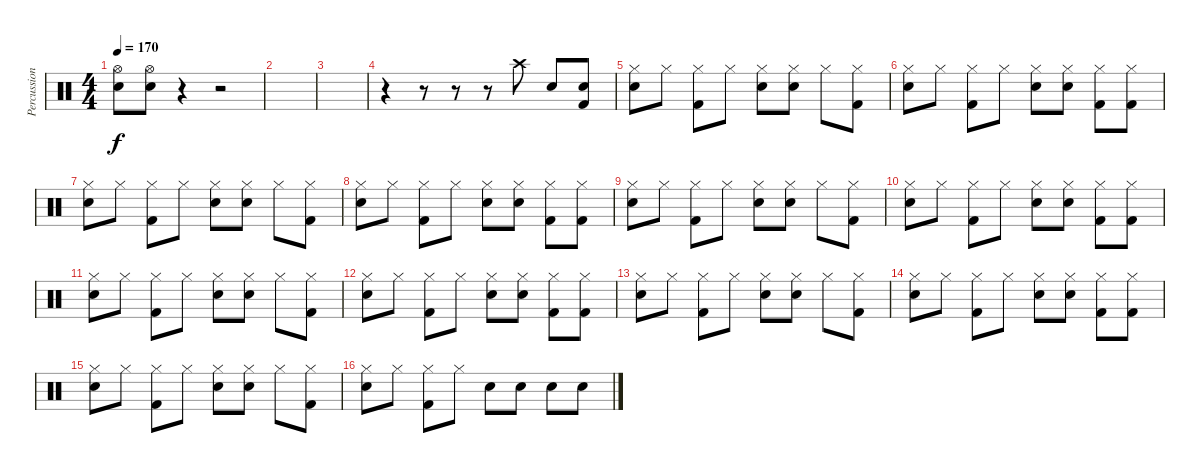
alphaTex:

\track ("Percussions" "Percussion") {instrument percussion}
\staff {score}
\articulation defaults
\ts (4 4)
\tempo 170
\clef neutral
\ks c
("Hi-Hat (open)" "Snare (hit) 2").8{dy f} ("Hi-Hat (open)" "Snare (hit) 2").8 r.4 r.2 |
|
|
r.4 r.8 r.8 r.8 "Crash high (hit)".8 "Snare (hit) 2".8 ("Snare (hit) 2" "Kick (hit) 2").8 |
("Hi-Hat (closed)" "Snare (hit) 2").8 "Hi-Hat (closed)".8 ("Hi-Hat (closed)" "Kick (hit) 2").8 "Hi-Hat (closed)".8 ("Hi-Hat (closed)" "Snare (hit) 2").8 ("Hi-Hat (closed)" "Snare (hit) 2").8 "Hi-Hat (closed)".8 ("Hi-Hat (closed)" "Kick (hit) 2").8 |
("Hi-Hat (closed)" "Snare (hit) 2").8 "Hi-Hat (closed)".8 ("Hi-Hat (closed)" "Kick (hit) 2").8 "Hi-Hat (closed)".8 ("Hi-Hat (closed)" "Snare (hit) 2").8 ("Hi-Hat (closed)" "Snare (hit) 2").8 ("Hi-Hat (closed)" "Kick (hit) 2").8 ("Hi-Hat (closed)" "Kick (hit) 2").8 |
("Hi-Hat (closed)" "Snare (hit) 2").8 "Hi-Hat (closed)".8 ("Hi-Hat (closed)" "Kick (hit) 2").8 "Hi-Hat (closed)".8 ("Hi-Hat (closed)" "Snare (hit) 2").8 ("Hi-Hat (closed)" "Snare (hit) 2").8 "Hi-Hat (closed)".8 ("Hi-Hat (closed)" "Kick (hit) 2").8 |
("Hi-Hat (closed)" "Snare (hit) 2").8 "Hi-Hat (closed)".8 ("Hi-Hat (closed)" "Kick (hit) 2").8 "Hi-Hat (closed)".8 ("Hi-Hat (closed)" "Snare (hit) 2").8 ("Hi-Hat (closed)" "Snare (hit) 2").8 ("Hi-Hat (closed)" "Kick (hit) 2").8 ("Hi-Hat (closed)" "Kick (hit) 2").8 |
("Hi-Hat (closed)" "Snare (hit) 2").8 "Hi-Hat (closed)".8 ("Hi-Hat (closed)" "Kick (hit) 2").8 "Hi-Hat (closed)".8 ("Hi-Hat (closed)" "Snare (hit) 2").8 ("Hi-Hat (closed)" "Snare (hit) 2").8 "Hi-Hat (closed)".8 ("Hi-Hat (closed)" "Kick (hit) 2").8 |
("Hi-Hat (closed)" "Snare (hit) 2").8 "Hi-Hat (closed)".8 ("Hi-Hat (closed)" "Kick (hit) 2").8 "Hi-Hat (closed)".8 ("Hi-Hat (closed)" "Snare (hit) 2").8 ("Hi-Hat (closed)" "Snare (hit) 2").8 ("Hi-Hat (closed)" "Kick (hit) 2").8 ("Hi-Hat (closed)" "Kick (hit) 2").8 |
("Hi-Hat (closed)" "Snare (hit) 2").8 "Hi-Hat (closed)".8 ("Hi-Hat (closed)" "Kick (hit) 2").8 "Hi-Hat (closed)".8 ("Hi-Hat (closed)" "Snare (hit) 2").8 ("Hi-Hat (closed)" "Snare (hit) 2").8 "Hi-Hat (closed)".8 ("Hi-Hat (closed)" "Kick (hit) 2").8 |
("Hi-Hat (closed)" "Snare (hit) 2").8 "Hi-Hat (closed)".8 ("Hi-Hat (closed)" "Kick (hit) 2").8 "Hi-Hat (closed)".8 ("Hi-Hat (closed)" "Snare (hit) 2").8 ("Hi-Hat (closed)" "Snare (hit) 2").8 ("Hi-Hat (closed)" "Kick (hit) 2").8 ("Hi-Hat (closed)" "Kick (hit) 2").8 |
("Hi-Hat (closed)" "Snare (hit) 2").8 "Hi-Hat (closed)".8 ("Hi-Hat (closed)" "Kick (hit) 2").8 "Hi-Hat (closed)".8 ("Hi-Hat (closed)" "Snare (hit) 2").8 ("Hi-Hat (closed)" "Snare (hit) 2").8 "Hi-Hat (closed)".8 ("Hi-Hat (closed)" "Kick (hit) 2").8 |
("Hi-Hat (closed)" "Snare (hit) 2").8 "Hi-Hat (closed)".8 ("Hi-Hat (closed)" "Kick (hit) 2").8 "Hi-Hat (closed)".8 ("Hi-Hat (closed)" "Snare (hit) 2").8 ("Hi-Hat (closed)" "Snare (hit) 2").8 ("Hi-Hat (closed)" "Kick (hit) 2").8 ("Hi-Hat (closed)" "Kick (hit) 2").8 |
("Hi-Hat (closed)" "Snare (hit) 2").8 "Hi-Hat (closed)".8 ("Hi-Hat (closed)" "Kick (hit) 2").8 "Hi-Hat (closed)".8 ("Hi-Hat (closed)" "Snare (hit) 2").8 ("Hi-Hat (closed)" "Snare (hit) 2").8 "Hi-Hat (closed)".8 ("Hi-Hat (closed)" "Kick (hit) 2").8 |
("Hi-Hat (closed)" "Snare (hit) 2").8 "Hi-Hat (closed)".8 ("Hi-Hat (closed)" "Kick (hit) 2").8 "Hi-Hat (closed)".8 "Snare (hit) 2".8 "Snare (hit) 2".8 "Snare (hit) 2".8 "Snare (hit) 2".8
